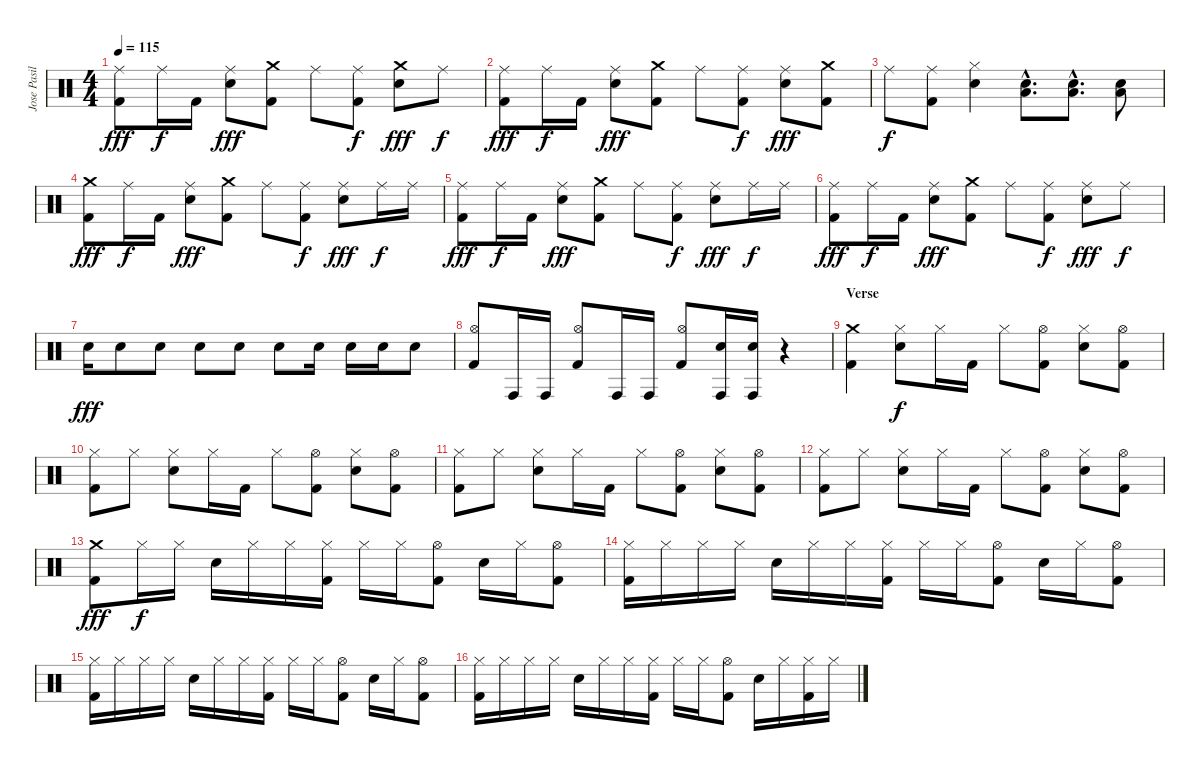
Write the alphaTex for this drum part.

\track ("Jose Pasillas - Drums" "Jose Pasil") {instrument percussion}
\staff {score}
\articulation defaults
\ts (4 4)
\tempo 115
\clef neutral
\ks c
("Ride (middle)" "Kick (hit) 2").8{dy fff} "Ride (middle)".16{dy f} "Kick (hit) 2".16 ("Ride (middle)" "Electric Snare (hit)").8{dy fff} ("Crash medium (hit)" "Kick (hit) 2").8 "Ride (middle)".8 ("Ride (middle)" "Kick (hit) 2").8{dy f} ("Crash medium (hit)" "Electric Snare (hit)").8{dy fff} "Ride (middle)".8{dy f} |
("Ride (middle)" "Kick (hit) 2").8{dy fff} "Ride (middle)".16{dy f} "Kick (hit) 2".16 ("Ride (middle)" "Electric Snare (hit)").8{dy fff} ("Crash medium (hit)" "Kick (hit) 2").8 "Ride (middle)".8 ("Ride (middle)" "Kick (hit) 2").8{dy f} ("Ride (middle)" "Electric Snare (hit)").8{dy fff} ("Crash medium (hit)" "Kick (hit) 2").8 |
"Ride (middle)".8{dy f} ("Ride (middle)" "Kick (hit) 2").8 ("Hi-Hat (closed)" "Electric Snare (hit)").4 ("Electric Snare (hit)"{hac} "Low Tom (hit)"{hac}).8{d} ("Electric Snare (hit)"{hac} "Low Tom (hit)"{hac}).8{d} ("Electric Snare (hit)" "Low Tom (hit)").8 |
("Crash medium (hit)" "Kick (hit) 2").8{dy fff} "Ride (middle)".16{dy f} "Kick (hit) 2".16 ("Ride (middle)" "Electric Snare (hit)").8{dy fff} ("Crash medium (hit)" "Kick (hit) 2").8 "Ride (middle)".8 ("Ride (middle)" "Kick (hit) 2").8{dy f} ("Ride (middle)" "Electric Snare (hit)").8{dy fff} "Ride (middle)".16{dy f} "Ride (middle)".16 |
("Ride (middle)" "Kick (hit) 2").8{dy fff} "Ride (middle)".16{dy f} "Kick (hit) 2".16 ("Ride (middle)" "Electric Snare (hit)").8{dy fff} ("Crash medium (hit)" "Kick (hit) 2").8 "Ride (middle)".8 ("Ride (middle)" "Kick (hit) 2").8{dy f} ("Ride (middle)" "Electric Snare (hit)").8{dy fff} "Ride (middle)".16{dy f} "Ride (middle)".16 |
("Ride (middle)" "Kick (hit) 2").8{dy fff} "Ride (middle)".16{dy f} "Kick (hit) 2".16 ("Ride (middle)" "Electric Snare (hit)").8{dy fff} ("Crash medium (hit)" "Kick (hit) 2").8 "Ride (middle)".8 ("Ride (middle)" "Kick (hit) 2").8{dy f} ("Ride (middle)" "Electric Snare (hit)").8{dy fff} "Ride (middle)".8{dy f} |
"Electric Snare (hit)".16{dy fff} "Electric Snare (hit)".8 "Electric Snare (hit)".8 "Electric Snare (hit)".8 "Electric Snare (hit)".8 "Electric Snare (hit)".8 "Electric Snare (hit)".16 "Electric Snare (hit)".16 "Electric Snare (hit)".16 "Electric Snare (hit)".8 |
("Hi-Hat (open)" "Kick (hit) 2").8 "Conga high (hit)".16 "Conga high (hit)".16 ("Hi-Hat (open)" "Kick (hit) 2").8 "Conga high (hit)".16 "Conga high (hit)".16 ("Hi-Hat (open)" "Kick (hit) 2").8 ("Electric Snare (hit)" "Conga high (hit)").16 ("Electric Snare (hit)" "Conga high (hit)").16 r.4 |
\section ("" "Verse")
("Crash medium (hit)" "Kick (hit) 2").4 ("Hi-Hat (closed)" "Electric Snare (hit)").8{dy f} "Hi-Hat (closed)".16 "Kick (hit) 2".16 "Hi-Hat (closed)".8 ("Hi-Hat (open)" "Kick (hit) 2").8 ("Hi-Hat (closed)" "Electric Snare (hit)").8 ("Hi-Hat (open)" "Kick (hit) 2").8 |
("Hi-Hat (closed)" "Kick (hit) 2").8 "Hi-Hat (closed)".8 ("Hi-Hat (closed)" "Electric Snare (hit)").8 "Hi-Hat (closed)".16 "Kick (hit) 2".16 "Hi-Hat (closed)".8 ("Hi-Hat (open)" "Kick (hit) 2").8 ("Hi-Hat (closed)" "Electric Snare (hit)").8 ("Hi-Hat (open)" "Kick (hit) 2").8 |
("Hi-Hat (closed)" "Kick (hit) 2").8 "Hi-Hat (closed)".8 ("Hi-Hat (closed)" "Electric Snare (hit)").8 "Hi-Hat (closed)".16 "Kick (hit) 2".16 "Hi-Hat (closed)".8 ("Hi-Hat (open)" "Kick (hit) 2").8 ("Hi-Hat (closed)" "Electric Snare (hit)").8 ("Hi-Hat (open)" "Kick (hit) 2").8 |
("Hi-Hat (closed)" "Kick (hit) 2").8 "Hi-Hat (closed)".8 ("Hi-Hat (closed)" "Electric Snare (hit)").8 "Hi-Hat (closed)".16 "Kick (hit) 2".16 "Hi-Hat (closed)".8 ("Hi-Hat (open)" "Kick (hit) 2").8 ("Hi-Hat (closed)" "Electric Snare (hit)").8 ("Hi-Hat (open)" "Kick (hit) 2").8 |
("Crash medium (hit)" "Kick (hit) 2").8{dy fff} "Hi-Hat (closed)".16{dy f} "Hi-Hat (closed)".16 "Electric Snare (hit)".16 "Hi-Hat (closed)".16 "Hi-Hat (closed)".16 ("Hi-Hat (closed)" "Kick (hit) 2").16 "Hi-Hat (closed)".16 "Hi-Hat (closed)".16 ("Hi-Hat (open)" "Kick (hit) 2").8 "Electric Snare (hit)".16 "Hi-Hat (closed)".16 ("Hi-Hat (open)" "Kick (hit) 2").8 |
("Hi-Hat (closed)" "Kick (hit) 2").16 "Hi-Hat (closed)".16 "Hi-Hat (closed)".16 "Hi-Hat (closed)".16 "Electric Snare (hit)".16 "Hi-Hat (closed)".16 "Hi-Hat (closed)".16 ("Hi-Hat (closed)" "Kick (hit) 2").16 "Hi-Hat (closed)".16 "Hi-Hat (closed)".16 ("Hi-Hat (open)" "Kick (hit) 2").8 "Electric Snare (hit)".16 "Hi-Hat (closed)".16 ("Hi-Hat (open)" "Kick (hit) 2").8 |
("Hi-Hat (closed)" "Kick (hit) 2").16 "Hi-Hat (closed)".16 "Hi-Hat (closed)".16 "Hi-Hat (closed)".16 "Electric Snare (hit)".16 "Hi-Hat (closed)".16 "Hi-Hat (closed)".16 ("Hi-Hat (closed)" "Kick (hit) 2").16 "Hi-Hat (closed)".16 "Hi-Hat (closed)".16 ("Hi-Hat (open)" "Kick (hit) 2").8 "Electric Snare (hit)".16 "Hi-Hat (closed)".16 ("Hi-Hat (open)" "Kick (hit) 2").8 |
("Hi-Hat (closed)" "Kick (hit) 2").16 "Hi-Hat (closed)".16 "Hi-Hat (closed)".16 "Hi-Hat (closed)".16 "Electric Snare (hit)".16 "Hi-Hat (closed)".16 "Hi-Hat (closed)".16 ("Hi-Hat (closed)" "Kick (hit) 2").16 "Hi-Hat (closed)".16 "Hi-Hat (closed)".16 ("Hi-Hat (open)" "Kick (hit) 2").8 "Electric Snare (hit)".16 "Hi-Hat (closed)".16 ("Hi-Hat (closed)" "Kick (hit) 2").16 "Hi-Hat (closed)".16
